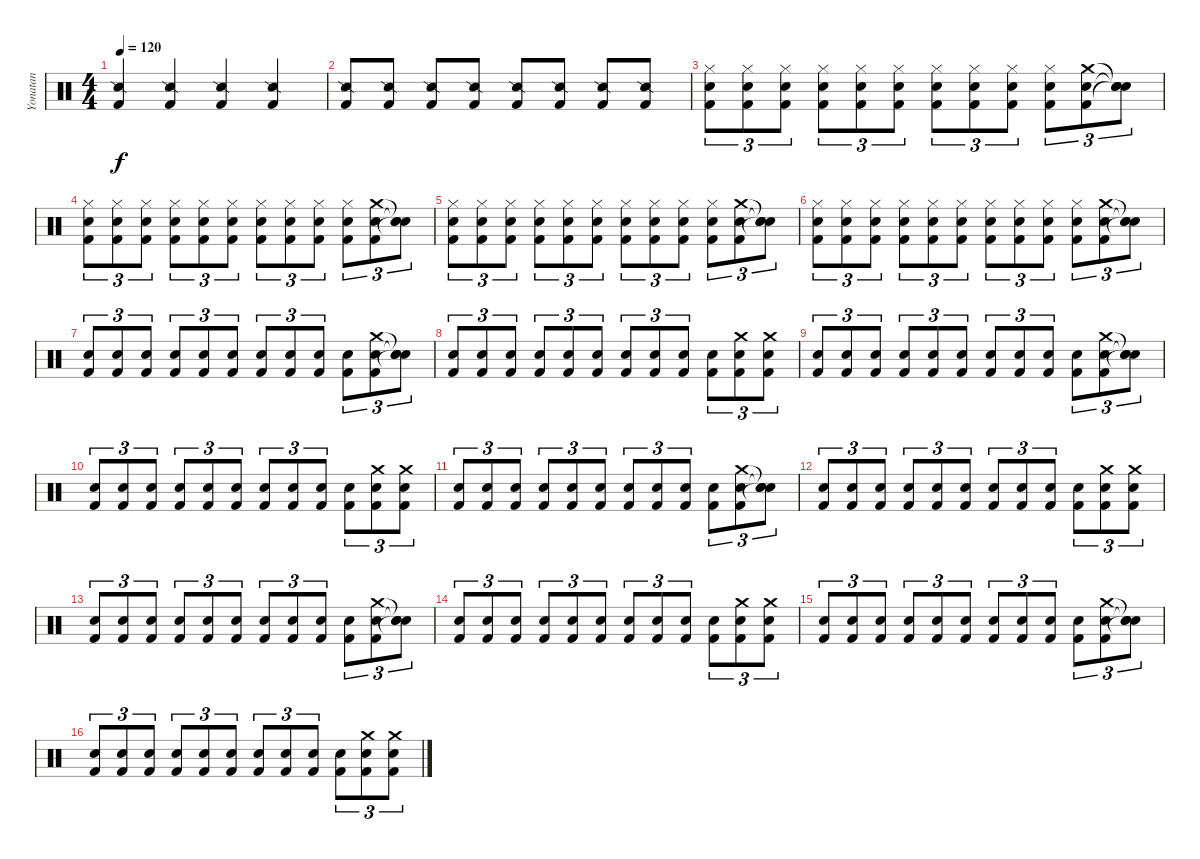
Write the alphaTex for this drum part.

\track ("Yonatan" "Yonatan") {instrument percussion}
\staff {score}
\articulation defaults
\ts (4 4)
\tempo 120
\clef neutral
\ks c
("Kick (hit) 2" "Snare (side stick) 2").4{dy f} ("Kick (hit) 2" "Snare (side stick) 2").4 ("Kick (hit) 2" "Snare (side stick) 2").4 ("Kick (hit) 2" "Snare (side stick) 2").4 |
("Kick (hit) 2" "Snare (side stick) 2").8 ("Kick (hit) 2" "Snare (side stick) 2").8 ("Kick (hit) 2" "Snare (side stick) 2").8 ("Kick (hit) 2" "Snare (side stick) 2").8 ("Kick (hit) 2" "Snare (side stick) 2").8 ("Kick (hit) 2" "Snare (side stick) 2").8 ("Kick (hit) 2" "Snare (side stick) 2").8 ("Kick (hit) 2" "Snare (side stick) 2").8 |
("Kick (hit) 2" "Snare (hit) 2" "Hi-Hat (closed)").8{tu (3 2)} ("Kick (hit) 2" "Snare (hit) 2" "Hi-Hat (closed)").8{tu (3 2)} ("Kick (hit) 2" "Snare (hit) 2" "Hi-Hat (closed)").8{tu (3 2)} ("Kick (hit) 2" "Snare (hit) 2" "Hi-Hat (closed)").8{tu (3 2)} ("Kick (hit) 2" "Snare (hit) 2" "Hi-Hat (closed)").8{tu (3 2)} ("Kick (hit) 2" "Snare (hit) 2" "Hi-Hat (closed)").8{tu (3 2)} ("Kick (hit) 2" "Snare (hit) 2" "Hi-Hat (closed)").8{tu (3 2)} ("Kick (hit) 2" "Snare (hit) 2" "Hi-Hat (closed)").8{tu (3 2)} ("Kick (hit) 2" "Snare (hit) 2" "Hi-Hat (closed)").8{tu (3 2)} ("Kick (hit) 2" "Snare (hit) 2" "Hi-Hat (closed)").8{tu (3 2)} ("Kick (hit) 2" "Snare (hit) 2" "Crash medium (hit)").8{tu (3 2)} ("Snare (hit)"{t} "Snare (hit)"{t} "Snare (hit)"{t}).8{tu (3 2)} |
("Kick (hit) 2" "Snare (hit) 2" "Hi-Hat (closed)").8{tu (3 2)} ("Kick (hit) 2" "Snare (hit) 2" "Hi-Hat (closed)").8{tu (3 2)} ("Kick (hit) 2" "Snare (hit) 2" "Hi-Hat (closed)").8{tu (3 2)} ("Kick (hit) 2" "Snare (hit) 2" "Hi-Hat (closed)").8{tu (3 2)} ("Kick (hit) 2" "Snare (hit) 2" "Hi-Hat (closed)").8{tu (3 2)} ("Kick (hit) 2" "Snare (hit) 2" "Hi-Hat (closed)").8{tu (3 2)} ("Kick (hit) 2" "Snare (hit) 2" "Hi-Hat (closed)").8{tu (3 2)} ("Kick (hit) 2" "Snare (hit) 2" "Hi-Hat (closed)").8{tu (3 2)} ("Kick (hit) 2" "Snare (hit) 2" "Hi-Hat (closed)").8{tu (3 2)} ("Kick (hit) 2" "Snare (hit) 2" "Hi-Hat (closed)").8{tu (3 2)} ("Kick (hit) 2" "Snare (hit) 2" "Crash medium (hit)").8{tu (3 2)} ("Snare (hit)"{t} "Snare (hit)"{t} "Snare (hit)"{t}).8{tu (3 2)} |
("Kick (hit) 2" "Snare (hit) 2" "Hi-Hat (closed)").8{tu (3 2)} ("Kick (hit) 2" "Snare (hit) 2" "Hi-Hat (closed)").8{tu (3 2)} ("Kick (hit) 2" "Snare (hit) 2" "Hi-Hat (closed)").8{tu (3 2)} ("Kick (hit) 2" "Snare (hit) 2" "Hi-Hat (closed)").8{tu (3 2)} ("Kick (hit) 2" "Snare (hit) 2" "Hi-Hat (closed)").8{tu (3 2)} ("Kick (hit) 2" "Snare (hit) 2" "Hi-Hat (closed)").8{tu (3 2)} ("Kick (hit) 2" "Snare (hit) 2" "Hi-Hat (closed)").8{tu (3 2)} ("Kick (hit) 2" "Snare (hit) 2" "Hi-Hat (closed)").8{tu (3 2)} ("Kick (hit) 2" "Snare (hit) 2" "Hi-Hat (closed)").8{tu (3 2)} ("Kick (hit) 2" "Snare (hit) 2" "Hi-Hat (closed)").8{tu (3 2)} ("Kick (hit) 2" "Snare (hit) 2" "Crash medium (hit)").8{tu (3 2)} ("Snare (hit)"{t} "Snare (hit)"{t} "Snare (hit)"{t}).8{tu (3 2)} |
("Kick (hit) 2" "Snare (hit) 2" "Hi-Hat (closed)").8{tu (3 2)} ("Kick (hit) 2" "Snare (hit) 2" "Hi-Hat (closed)").8{tu (3 2)} ("Kick (hit) 2" "Snare (hit) 2" "Hi-Hat (closed)").8{tu (3 2)} ("Kick (hit) 2" "Snare (hit) 2" "Hi-Hat (closed)").8{tu (3 2)} ("Kick (hit) 2" "Snare (hit) 2" "Hi-Hat (closed)").8{tu (3 2)} ("Kick (hit) 2" "Snare (hit) 2" "Hi-Hat (closed)").8{tu (3 2)} ("Kick (hit) 2" "Snare (hit) 2" "Hi-Hat (closed)").8{tu (3 2)} ("Kick (hit) 2" "Snare (hit) 2" "Hi-Hat (closed)").8{tu (3 2)} ("Kick (hit) 2" "Snare (hit) 2" "Hi-Hat (closed)").8{tu (3 2)} ("Kick (hit) 2" "Snare (hit) 2" "Hi-Hat (closed)").8{tu (3 2)} ("Kick (hit) 2" "Snare (hit) 2" "Crash medium (hit)").8{tu (3 2)} ("Snare (hit)"{t} "Snare (hit)"{t} "Snare (hit)"{t}).8{tu (3 2)} |
("Kick (hit) 2" "Snare (hit) 2").8{tu (3 2)} ("Kick (hit) 2" "Snare (hit) 2").8{tu (3 2)} ("Kick (hit) 2" "Snare (hit) 2").8{tu (3 2)} ("Kick (hit) 2" "Snare (hit) 2").8{tu (3 2)} ("Kick (hit) 2" "Snare (hit) 2").8{tu (3 2)} ("Kick (hit) 2" "Snare (hit) 2").8{tu (3 2)} ("Kick (hit) 2" "Snare (hit) 2").8{tu (3 2)} ("Kick (hit) 2" "Snare (hit) 2").8{tu (3 2)} ("Kick (hit) 2" "Snare (hit) 2").8{tu (3 2)} ("Kick (hit) 2" "Snare (hit) 2").8{tu (3 2)} ("Kick (hit) 2" "Snare (hit) 2" "Crash medium (hit)").8{tu (3 2)} ("Snare (hit)"{t} "Snare (hit)"{t} "Snare (hit)"{t}).8{tu (3 2)} |
("Kick (hit) 2" "Snare (hit) 2").8{tu (3 2)} ("Kick (hit) 2" "Snare (hit) 2").8{tu (3 2)} ("Kick (hit) 2" "Snare (hit) 2").8{tu (3 2)} ("Kick (hit) 2" "Snare (hit) 2").8{tu (3 2)} ("Kick (hit) 2" "Snare (hit) 2").8{tu (3 2)} ("Kick (hit) 2" "Snare (hit) 2").8{tu (3 2)} ("Kick (hit) 2" "Snare (hit) 2").8{tu (3 2)} ("Kick (hit) 2" "Snare (hit) 2").8{tu (3 2)} ("Kick (hit) 2" "Snare (hit) 2").8{tu (3 2)} ("Kick (hit) 2" "Snare (hit) 2").8{tu (3 2)} ("Kick (hit) 2" "Crash medium (hit)" "Snare (hit) 2").8{tu (3 2)} ("Kick (hit) 2" "Crash medium (hit)" "Snare (hit) 2").8{tu (3 2)} |
("Kick (hit) 2" "Snare (hit) 2").8{tu (3 2)} ("Kick (hit) 2" "Snare (hit) 2").8{tu (3 2)} ("Kick (hit) 2" "Snare (hit) 2").8{tu (3 2)} ("Kick (hit) 2" "Snare (hit) 2").8{tu (3 2)} ("Kick (hit) 2" "Snare (hit) 2").8{tu (3 2)} ("Kick (hit) 2" "Snare (hit) 2").8{tu (3 2)} ("Kick (hit) 2" "Snare (hit) 2").8{tu (3 2)} ("Kick (hit) 2" "Snare (hit) 2").8{tu (3 2)} ("Kick (hit) 2" "Snare (hit) 2").8{tu (3 2)} ("Kick (hit) 2" "Snare (hit) 2").8{tu (3 2)} ("Kick (hit) 2" "Snare (hit) 2" "Crash medium (hit)").8{tu (3 2)} ("Snare (hit)"{t} "Snare (hit)"{t} "Snare (hit)"{t}).8{tu (3 2)} |
("Kick (hit) 2" "Snare (hit) 2").8{tu (3 2)} ("Kick (hit) 2" "Snare (hit) 2").8{tu (3 2)} ("Kick (hit) 2" "Snare (hit) 2").8{tu (3 2)} ("Kick (hit) 2" "Snare (hit) 2").8{tu (3 2)} ("Kick (hit) 2" "Snare (hit) 2").8{tu (3 2)} ("Kick (hit) 2" "Snare (hit) 2").8{tu (3 2)} ("Kick (hit) 2" "Snare (hit) 2").8{tu (3 2)} ("Kick (hit) 2" "Snare (hit) 2").8{tu (3 2)} ("Kick (hit) 2" "Snare (hit) 2").8{tu (3 2)} ("Kick (hit) 2" "Snare (hit) 2").8{tu (3 2)} ("Kick (hit) 2" "Crash medium (hit)" "Snare (hit) 2").8{tu (3 2)} ("Kick (hit) 2" "Crash medium (hit)" "Snare (hit) 2").8{tu (3 2)} |
("Kick (hit) 2" "Snare (hit) 2").8{tu (3 2)} ("Kick (hit) 2" "Snare (hit) 2").8{tu (3 2)} ("Kick (hit) 2" "Snare (hit) 2").8{tu (3 2)} ("Kick (hit) 2" "Snare (hit) 2").8{tu (3 2)} ("Kick (hit) 2" "Snare (hit) 2").8{tu (3 2)} ("Kick (hit) 2" "Snare (hit) 2").8{tu (3 2)} ("Kick (hit) 2" "Snare (hit) 2").8{tu (3 2)} ("Kick (hit) 2" "Snare (hit) 2").8{tu (3 2)} ("Kick (hit) 2" "Snare (hit) 2").8{tu (3 2)} ("Kick (hit) 2" "Snare (hit) 2").8{tu (3 2)} ("Kick (hit) 2" "Snare (hit) 2" "Crash medium (hit)").8{tu (3 2)} ("Snare (hit)"{t} "Snare (hit)"{t} "Snare (hit)"{t}).8{tu (3 2)} |
("Kick (hit) 2" "Snare (hit) 2").8{tu (3 2)} ("Kick (hit) 2" "Snare (hit) 2").8{tu (3 2)} ("Kick (hit) 2" "Snare (hit) 2").8{tu (3 2)} ("Kick (hit) 2" "Snare (hit) 2").8{tu (3 2)} ("Kick (hit) 2" "Snare (hit) 2").8{tu (3 2)} ("Kick (hit) 2" "Snare (hit) 2").8{tu (3 2)} ("Kick (hit) 2" "Snare (hit) 2").8{tu (3 2)} ("Kick (hit) 2" "Snare (hit) 2").8{tu (3 2)} ("Kick (hit) 2" "Snare (hit) 2").8{tu (3 2)} ("Kick (hit) 2" "Snare (hit) 2").8{tu (3 2)} ("Kick (hit) 2" "Crash medium (hit)" "Snare (hit) 2").8{tu (3 2)} ("Kick (hit) 2" "Crash medium (hit)" "Snare (hit) 2").8{tu (3 2)} |
("Kick (hit) 2" "Snare (hit) 2").8{tu (3 2)} ("Kick (hit) 2" "Snare (hit) 2").8{tu (3 2)} ("Kick (hit) 2" "Snare (hit) 2").8{tu (3 2)} ("Kick (hit) 2" "Snare (hit) 2").8{tu (3 2)} ("Kick (hit) 2" "Snare (hit) 2").8{tu (3 2)} ("Kick (hit) 2" "Snare (hit) 2").8{tu (3 2)} ("Kick (hit) 2" "Snare (hit) 2").8{tu (3 2)} ("Kick (hit) 2" "Snare (hit) 2").8{tu (3 2)} ("Kick (hit) 2" "Snare (hit) 2").8{tu (3 2)} ("Kick (hit) 2" "Snare (hit) 2").8{tu (3 2)} ("Kick (hit) 2" "Snare (hit) 2" "Crash medium (hit)").8{tu (3 2)} ("Snare (hit)"{t} "Snare (hit)"{t} "Snare (hit)"{t}).8{tu (3 2)} |
("Kick (hit) 2" "Snare (hit) 2").8{tu (3 2)} ("Kick (hit) 2" "Snare (hit) 2").8{tu (3 2)} ("Kick (hit) 2" "Snare (hit) 2").8{tu (3 2)} ("Kick (hit) 2" "Snare (hit) 2").8{tu (3 2)} ("Kick (hit) 2" "Snare (hit) 2").8{tu (3 2)} ("Kick (hit) 2" "Snare (hit) 2").8{tu (3 2)} ("Kick (hit) 2" "Snare (hit) 2").8{tu (3 2)} ("Kick (hit) 2" "Snare (hit) 2").8{tu (3 2)} ("Kick (hit) 2" "Snare (hit) 2").8{tu (3 2)} ("Kick (hit) 2" "Snare (hit) 2").8{tu (3 2)} ("Kick (hit) 2" "Crash medium (hit)" "Snare (hit) 2").8{tu (3 2)} ("Kick (hit) 2" "Crash medium (hit)" "Snare (hit) 2").8{tu (3 2)} |
("Kick (hit) 2" "Snare (hit) 2").8{tu (3 2)} ("Kick (hit) 2" "Snare (hit) 2").8{tu (3 2)} ("Kick (hit) 2" "Snare (hit) 2").8{tu (3 2)} ("Kick (hit) 2" "Snare (hit) 2").8{tu (3 2)} ("Kick (hit) 2" "Snare (hit) 2").8{tu (3 2)} ("Kick (hit) 2" "Snare (hit) 2").8{tu (3 2)} ("Kick (hit) 2" "Snare (hit) 2").8{tu (3 2)} ("Kick (hit) 2" "Snare (hit) 2").8{tu (3 2)} ("Kick (hit) 2" "Snare (hit) 2").8{tu (3 2)} ("Kick (hit) 2" "Snare (hit) 2").8{tu (3 2)} ("Kick (hit) 2" "Snare (hit) 2" "Crash medium (hit)").8{tu (3 2)} ("Snare (hit)"{t} "Snare (hit)"{t} "Snare (hit)"{t}).8{tu (3 2)} |
("Kick (hit) 2" "Snare (hit) 2").8{tu (3 2)} ("Kick (hit) 2" "Snare (hit) 2").8{tu (3 2)} ("Kick (hit) 2" "Snare (hit) 2").8{tu (3 2)} ("Kick (hit) 2" "Snare (hit) 2").8{tu (3 2)} ("Kick (hit) 2" "Snare (hit) 2").8{tu (3 2)} ("Kick (hit) 2" "Snare (hit) 2").8{tu (3 2)} ("Kick (hit) 2" "Snare (hit) 2").8{tu (3 2)} ("Kick (hit) 2" "Snare (hit) 2").8{tu (3 2)} ("Kick (hit) 2" "Snare (hit) 2").8{tu (3 2)} ("Kick (hit) 2" "Snare (hit) 2").8{tu (3 2)} ("Kick (hit) 2" "Crash medium (hit)" "Snare (hit) 2").8{tu (3 2)} ("Kick (hit) 2" "Crash medium (hit)" "Snare (hit) 2").8{tu (3 2)}
